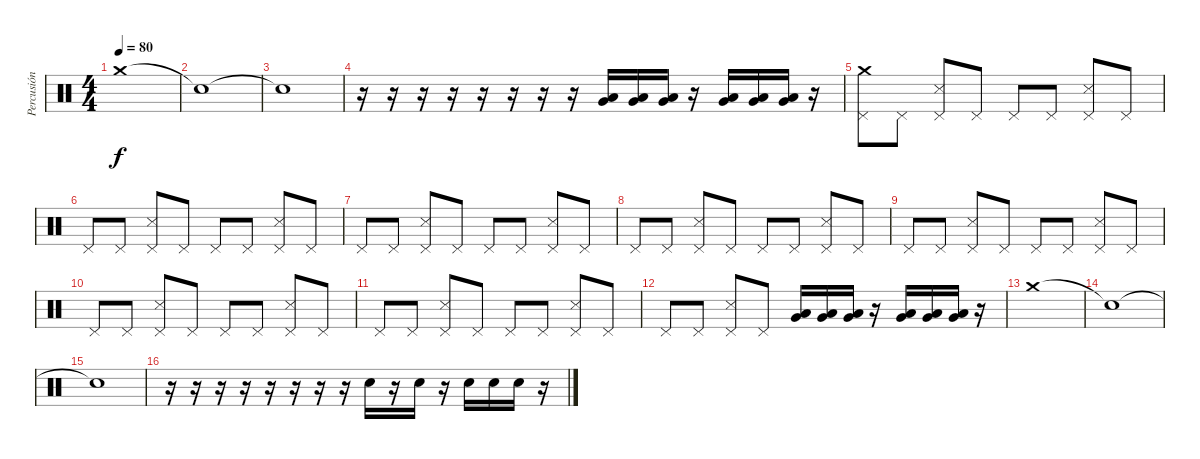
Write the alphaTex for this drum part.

\track ("Percusión" "Percusión") {instrument percussion}
\staff {score}
\articulation defaults
\ts (4 4)
\tempo 80
\clef neutral
\ks c "Crash medium (hit)".1{dy f}
|
"Snare (hit)"{t}.1 |
"Snare (hit)"{t}.1 |
r.16 r.16 r.16 r.16 r.16 r.16 r.16 r.16 ("Very Low Tom (hit)" "Low Tom (hit)").16 ("Very Low Tom (hit)" "Low Tom (hit)").16 ("Very Low Tom (hit)" "Low Tom (hit)").16 r.16 ("Very Low Tom (hit)" "Low Tom (hit)").16 ("Very Low Tom (hit)" "Low Tom (hit)").16 ("Very Low Tom (hit)" "Low Tom (hit)").16 r.16 |
("Pedal Hi-Hat (hit)" "Crash medium (hit)").8 "Pedal Hi-Hat (hit)".8 ("Pedal Hi-Hat (hit)" "Snare (side stick) 3").8 "Pedal Hi-Hat (hit)".8 "Pedal Hi-Hat (hit)".8 "Pedal Hi-Hat (hit)".8 ("Pedal Hi-Hat (hit)" "Snare (side stick) 3").8 "Pedal Hi-Hat (hit)".8 |
"Pedal Hi-Hat (hit)".8 "Pedal Hi-Hat (hit)".8 ("Pedal Hi-Hat (hit)" "Snare (side stick) 3").8 "Pedal Hi-Hat (hit)".8 "Pedal Hi-Hat (hit)".8 "Pedal Hi-Hat (hit)".8 ("Pedal Hi-Hat (hit)" "Snare (side stick) 3").8 "Pedal Hi-Hat (hit)".8 |
"Pedal Hi-Hat (hit)".8 "Pedal Hi-Hat (hit)".8 ("Pedal Hi-Hat (hit)" "Snare (side stick) 3").8 "Pedal Hi-Hat (hit)".8 "Pedal Hi-Hat (hit)".8 "Pedal Hi-Hat (hit)".8 ("Pedal Hi-Hat (hit)" "Snare (side stick) 3").8 "Pedal Hi-Hat (hit)".8 |
"Pedal Hi-Hat (hit)".8 "Pedal Hi-Hat (hit)".8 ("Pedal Hi-Hat (hit)" "Snare (side stick) 3").8 "Pedal Hi-Hat (hit)".8 "Pedal Hi-Hat (hit)".8 "Pedal Hi-Hat (hit)".8 ("Pedal Hi-Hat (hit)" "Snare (side stick) 3").8 "Pedal Hi-Hat (hit)".8 |
"Pedal Hi-Hat (hit)".8 "Pedal Hi-Hat (hit)".8 ("Pedal Hi-Hat (hit)" "Snare (side stick) 3").8 "Pedal Hi-Hat (hit)".8 "Pedal Hi-Hat (hit)".8 "Pedal Hi-Hat (hit)".8 ("Pedal Hi-Hat (hit)" "Snare (side stick) 3").8 "Pedal Hi-Hat (hit)".8 |
"Pedal Hi-Hat (hit)".8 "Pedal Hi-Hat (hit)".8 ("Pedal Hi-Hat (hit)" "Snare (side stick) 3").8 "Pedal Hi-Hat (hit)".8 "Pedal Hi-Hat (hit)".8 "Pedal Hi-Hat (hit)".8 ("Pedal Hi-Hat (hit)" "Snare (side stick) 3").8 "Pedal Hi-Hat (hit)".8 |
"Pedal Hi-Hat (hit)".8 "Pedal Hi-Hat (hit)".8 ("Pedal Hi-Hat (hit)" "Snare (side stick) 3").8 "Pedal Hi-Hat (hit)".8 "Pedal Hi-Hat (hit)".8 "Pedal Hi-Hat (hit)".8 ("Pedal Hi-Hat (hit)" "Snare (side stick) 3").8 "Pedal Hi-Hat (hit)".8 |
"Pedal Hi-Hat (hit)".8 "Pedal Hi-Hat (hit)".8 ("Pedal Hi-Hat (hit)" "Snare (side stick) 3").8 "Pedal Hi-Hat (hit)".8 ("Very Low Tom (hit)" "Low Tom (hit)").16 ("Very Low Tom (hit)" "Low Tom (hit)").16 ("Very Low Tom (hit)" "Low Tom (hit)").16 r.16 ("Very Low Tom (hit)" "Low Tom (hit)").16 ("Very Low Tom (hit)" "Low Tom (hit)").16 ("Very Low Tom (hit)" "Low Tom (hit)").16 r.16 |
"Crash medium (hit)".1 |
"Snare (hit)"{t}.1 |
"Snare (hit)"{t}.1 |
r.16 r.16 r.16 r.16 r.16 r.16 r.16 r.16 "Snare (hit) 2".16 r.16 "Snare (hit) 2".16 r.16 "Snare (hit) 2".16 "Snare (hit) 2".16 "Snare (hit) 2".16 r.16
